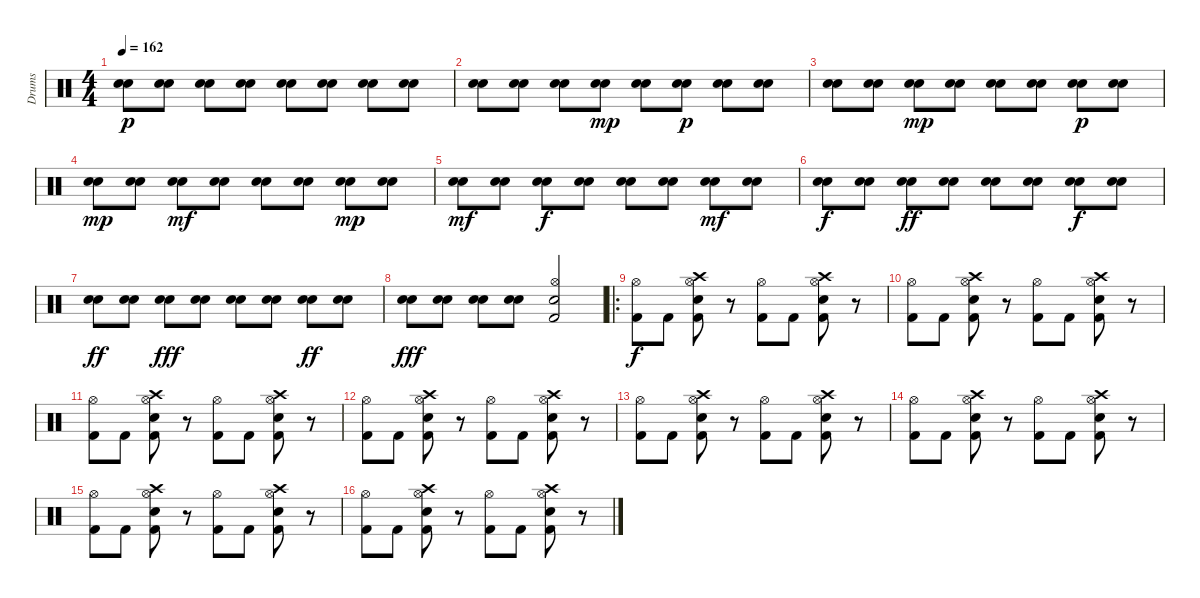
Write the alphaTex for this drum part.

\track ("Drums" "Drums") {instrument percussion}
\staff {score}
\articulation defaults
\ts (4 4)
\tempo 162
\clef neutral
\ks c
("Snare (hit) 2" "Electric Snare (hit)").8{dy p} ("Snare (hit) 2" "Electric Snare (hit)").8 ("Snare (hit) 2" "Electric Snare (hit)").8 ("Snare (hit) 2" "Electric Snare (hit)").8 ("Snare (hit) 2" "Electric Snare (hit)").8 ("Snare (hit) 2" "Electric Snare (hit)").8 ("Snare (hit) 2" "Electric Snare (hit)").8 ("Snare (hit) 2" "Electric Snare (hit)").8 |
("Snare (hit) 2" "Electric Snare (hit)").8 ("Snare (hit) 2" "Electric Snare (hit)").8 ("Snare (hit) 2" "Electric Snare (hit)").8 ("Snare (hit) 2" "Electric Snare (hit)").8{dy mp} ("Snare (hit) 2" "Electric Snare (hit)").8 ("Snare (hit) 2" "Electric Snare (hit)").8{dy p} ("Snare (hit) 2" "Electric Snare (hit)").8 ("Snare (hit) 2" "Electric Snare (hit)").8 |
("Snare (hit) 2" "Electric Snare (hit)").8 ("Snare (hit) 2" "Electric Snare (hit)").8 ("Snare (hit) 2" "Electric Snare (hit)").8{dy mp} ("Snare (hit) 2" "Electric Snare (hit)").8 ("Snare (hit) 2" "Electric Snare (hit)").8 ("Snare (hit) 2" "Electric Snare (hit)").8 ("Snare (hit) 2" "Electric Snare (hit)").8{dy p} ("Snare (hit) 2" "Electric Snare (hit)").8 |
("Snare (hit) 2" "Electric Snare (hit)").8{dy mp} ("Snare (hit) 2" "Electric Snare (hit)").8 ("Snare (hit) 2" "Electric Snare (hit)").8{dy mf} ("Snare (hit) 2" "Electric Snare (hit)").8 ("Snare (hit) 2" "Electric Snare (hit)").8 ("Snare (hit) 2" "Electric Snare (hit)").8 ("Snare (hit) 2" "Electric Snare (hit)").8{dy mp} ("Snare (hit) 2" "Electric Snare (hit)").8 |
("Snare (hit) 2" "Electric Snare (hit)").8{dy mf} ("Snare (hit) 2" "Electric Snare (hit)").8 ("Snare (hit) 2" "Electric Snare (hit)").8{dy f} ("Snare (hit) 2" "Electric Snare (hit)").8 ("Snare (hit) 2" "Electric Snare (hit)").8 ("Snare (hit) 2" "Electric Snare (hit)").8 ("Snare (hit) 2" "Electric Snare (hit)").8{dy mf} ("Snare (hit) 2" "Electric Snare (hit)").8 |
("Snare (hit) 2" "Electric Snare (hit)").8{dy f} ("Snare (hit) 2" "Electric Snare (hit)").8 ("Snare (hit) 2" "Electric Snare (hit)").8{dy ff} ("Snare (hit) 2" "Electric Snare (hit)").8 ("Snare (hit) 2" "Electric Snare (hit)").8 ("Snare (hit) 2" "Electric Snare (hit)").8 ("Snare (hit) 2" "Electric Snare (hit)").8{dy f} ("Snare (hit) 2" "Electric Snare (hit)").8 |
("Snare (hit) 2" "Electric Snare (hit)").8{dy ff} ("Snare (hit) 2" "Electric Snare (hit)").8 ("Snare (hit) 2" "Electric Snare (hit)").8{dy fff} ("Snare (hit) 2" "Electric Snare (hit)").8 ("Snare (hit) 2" "Electric Snare (hit)").8 ("Snare (hit) 2" "Electric Snare (hit)").8 ("Snare (hit) 2" "Electric Snare (hit)").8{dy ff} ("Snare (hit) 2" "Electric Snare (hit)").8 |
("Snare (hit) 2" "Electric Snare (hit)").8{dy fff} ("Snare (hit) 2" "Electric Snare (hit)").8 ("Snare (hit) 2" "Electric Snare (hit)").8 ("Snare (hit) 2" "Electric Snare (hit)").8 ("Hi-Hat (open)" "Snare (hit) 2" "Kick (hit) 2").2 |
\ro
("Hi-Hat (open)" "Kick (hit) 2").8{dy f} "Kick (hit) 2".8 ("Hi-Hat (open)" "Crash high (hit)" "Snare (hit) 2" "Kick (hit) 2").8 r.8 ("Hi-Hat (open)" "Kick (hit) 2").8 "Kick (hit) 2".8 ("Hi-Hat (open)" "Crash high (hit)" "Snare (hit) 2" "Kick (hit) 2").8 r.8 |
("Hi-Hat (open)" "Kick (hit) 2").8 "Kick (hit) 2".8 ("Hi-Hat (open)" "Crash high (hit)" "Snare (hit) 2" "Kick (hit) 2").8 r.8 ("Hi-Hat (open)" "Kick (hit) 2").8 "Kick (hit) 2".8 ("Hi-Hat (open)" "Crash high (hit)" "Snare (hit) 2" "Kick (hit) 2").8 r.8 |
("Hi-Hat (open)" "Kick (hit) 2").8 "Kick (hit) 2".8 ("Hi-Hat (open)" "Crash high (hit)" "Snare (hit) 2" "Kick (hit) 2").8 r.8 ("Hi-Hat (open)" "Kick (hit) 2").8 "Kick (hit) 2".8 ("Hi-Hat (open)" "Crash high (hit)" "Snare (hit) 2" "Kick (hit) 2").8 r.8 |
("Hi-Hat (open)" "Kick (hit) 2").8 "Kick (hit) 2".8 ("Hi-Hat (open)" "Crash high (hit)" "Snare (hit) 2" "Kick (hit) 2").8 r.8 ("Hi-Hat (open)" "Kick (hit) 2").8 "Kick (hit) 2".8 ("Hi-Hat (open)" "Crash high (hit)" "Snare (hit) 2" "Kick (hit) 2").8 r.8 |
("Hi-Hat (open)" "Kick (hit) 2").8 "Kick (hit) 2".8 ("Hi-Hat (open)" "Crash high (hit)" "Snare (hit) 2" "Kick (hit) 2").8 r.8 ("Hi-Hat (open)" "Kick (hit) 2").8 "Kick (hit) 2".8 ("Hi-Hat (open)" "Crash high (hit)" "Snare (hit) 2" "Kick (hit) 2").8 r.8 |
("Hi-Hat (open)" "Kick (hit) 2").8 "Kick (hit) 2".8 ("Hi-Hat (open)" "Crash high (hit)" "Snare (hit) 2" "Kick (hit) 2").8 r.8 ("Hi-Hat (open)" "Kick (hit) 2").8 "Kick (hit) 2".8 ("Hi-Hat (open)" "Crash high (hit)" "Snare (hit) 2" "Kick (hit) 2").8 r.8 |
("Hi-Hat (open)" "Kick (hit) 2").8 "Kick (hit) 2".8 ("Hi-Hat (open)" "Crash high (hit)" "Snare (hit) 2" "Kick (hit) 2").8 r.8 ("Hi-Hat (open)" "Kick (hit) 2").8 "Kick (hit) 2".8 ("Hi-Hat (open)" "Crash high (hit)" "Snare (hit) 2" "Kick (hit) 2").8 r.8 |
("Hi-Hat (open)" "Kick (hit) 2").8 "Kick (hit) 2".8 ("Hi-Hat (open)" "Crash high (hit)" "Snare (hit) 2" "Kick (hit) 2").8 r.8 ("Hi-Hat (open)" "Kick (hit) 2").8 "Kick (hit) 2".8 ("Hi-Hat (open)" "Crash high (hit)" "Snare (hit) 2" "Kick (hit) 2").8 r.8
